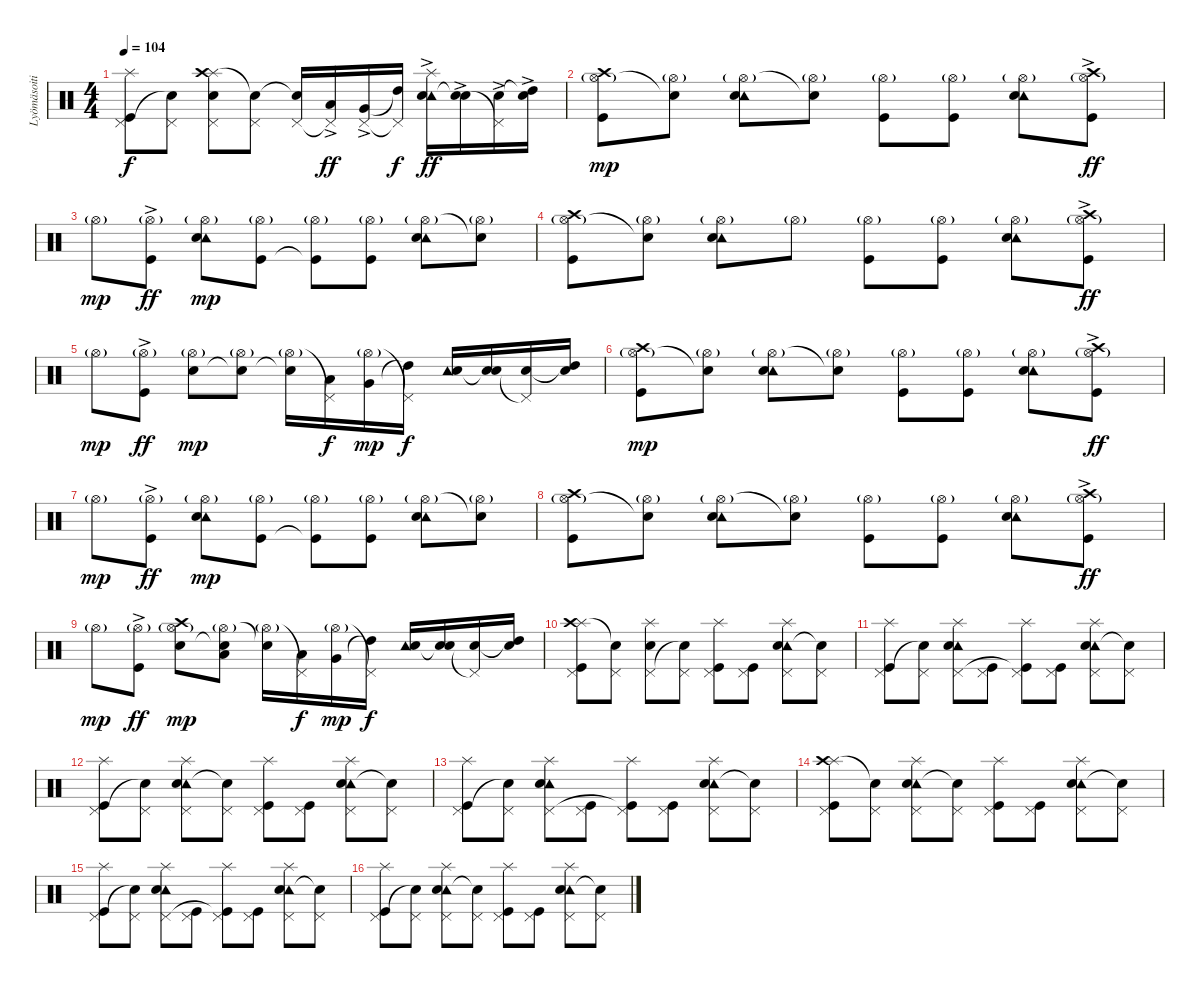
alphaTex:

\track ("Lyömäsoitin" "Lyömäsoiti") {instrument percussion}
\staff {score}
\articulation defaults
\ts (4 4)
\tempo 104
\clef neutral
\ks c
("Splash (hit)" "Pedal Hi-Hat (hit)" "Kick (hit)").8{dy f} ("Pedal Hi-Hat (hit)" "Snare (hit)"{t}).8 ("Splash (hit)" "Crash high (hit)" "Pedal Hi-Hat (hit)" "Snare (hit) 2").8 ("Pedal Hi-Hat (hit)" "Snare (hit)"{t}).8 ("Pedal Hi-Hat (hit)" "Snare (hit)"{t}).16 ("Pedal Hi-Hat (hit)"{t} "Low Tom (hit)"{ac}).16{dy ff} ("Pedal Hi-Hat (hit)"{ac} "Very Low Tom (hit)"{ac}).16 ("Pedal Hi-Hat (hit)"{t} "High Tom (hit)"{t}).16{dy f} ("Splash (hit)"{ac} "Tambourine (hit)"{ac} "Electric Snare (hit)"{ac}).16{dy ff} ("Electric Snare (hit)"{ac} "Snare (hit)"{t}).16 ("Pedal Hi-Hat (hit)"{t} "Electric Snare (hit)"{ac}).16 ("Electric Snare (hit)"{ac} "High Tom (hit)"{t}).16 |
("Crash high (hit)" "Hi-Hat (open)"{g} "Kick (hit)").8{dy mp} ("Hi-Hat (open)"{g} "Snare (hit)"{t}).8 ("Tambourine (hit)" "Hi-Hat (open)"{g} "Snare (hit) 2").8 ("Hi-Hat (open)"{g} "Snare (hit)"{t}).8 ("Hi-Hat (open)"{g} "Kick (hit)").8 ("Hi-Hat (open)"{g} "Kick (hit)").8 ("Tambourine (hit)" "Hi-Hat (open)"{g} "Snare (hit) 2").8 ("Crash high (hit)" "Hi-Hat (open)"{g} "Kick (hit)"{ac}).8{dy ff} |
"Hi-Hat (open)"{g}.8{dy mp} ("Hi-Hat (open)"{g} "Kick (hit)"{ac}).8{dy ff} ("Tambourine (hit)" "Hi-Hat (open)"{g} "Snare (hit) 2").8{dy mp} ("Hi-Hat (open)"{g} "Kick (hit)").8 ("Hi-Hat (open)"{g} "Kick (hit)"{t}).8 ("Hi-Hat (open)"{g} "Kick (hit)").8 ("Tambourine (hit)" "Hi-Hat (open)"{g} "Snare (hit) 2").8 ("Hi-Hat (open)"{g} "Snare (hit) 2"{t}).8 |
("Crash high (hit)" "Hi-Hat (open)"{g} "Kick (hit)").8 ("Hi-Hat (open)"{g} "Snare (hit)"{t}).8 ("Tambourine (hit)" "Hi-Hat (open)"{g} "Snare (hit) 2").8 "Hi-Hat (open)"{g}.8 ("Hi-Hat (open)"{g} "Kick (hit)").8 ("Hi-Hat (open)"{g} "Kick (hit)").8 ("Tambourine (hit)" "Hi-Hat (open)"{g} "Snare (hit) 2").8 ("Crash high (hit)" "Hi-Hat (open)"{g} "Kick (hit)"{ac}).8{dy ff} |
"Hi-Hat (open)"{g}.8{dy mp} ("Hi-Hat (open)"{g} "Kick (hit)"{ac}).8{dy ff} ("Hi-Hat (open)"{g} "Snare (hit) 2").8{dy mp} ("Hi-Hat (open)"{g} "Snare (hit)"{t}).8 ("Hi-Hat (open)"{g} "Snare (hit)"{t}).16 ("Pedal Hi-Hat (hit)"{t} "Low Tom (hit)").16{dy f} ("Hi-Hat (open)"{g} "Very Low Tom (hit)").16{dy mp} ("Pedal Hi-Hat (hit)"{t} "High Tom (hit)"{t}).16{dy f} ("Tambourine (hit)" "Electric Snare (hit)").16 ("Electric Snare (hit)" "Snare (hit)"{t}).16 ("Pedal Hi-Hat (hit)"{t} "Electric Snare (hit)").16 ("Electric Snare (hit)" "High Tom (hit)"{t}).16 |
("Crash high (hit)" "Hi-Hat (open)"{g} "Kick (hit)").8{dy mp} ("Hi-Hat (open)"{g} "Snare (hit)"{t}).8 ("Tambourine (hit)" "Hi-Hat (open)"{g} "Snare (hit) 2").8 ("Hi-Hat (open)"{g} "Snare (hit)"{t}).8 ("Hi-Hat (open)"{g} "Kick (hit)").8 ("Hi-Hat (open)"{g} "Kick (hit)").8 ("Tambourine (hit)" "Hi-Hat (open)"{g} "Snare (hit) 2").8 ("Crash high (hit)" "Hi-Hat (open)"{g} "Kick (hit)"{ac}).8{dy ff} |
"Hi-Hat (open)"{g}.8{dy mp} ("Hi-Hat (open)"{g} "Kick (hit)"{ac}).8{dy ff} ("Tambourine (hit)" "Hi-Hat (open)"{g} "Snare (hit) 2").8{dy mp} ("Hi-Hat (open)"{g} "Kick (hit)").8 ("Hi-Hat (open)"{g} "Kick (hit)"{t}).8 ("Hi-Hat (open)"{g} "Kick (hit)").8 ("Tambourine (hit)" "Hi-Hat (open)"{g} "Snare (hit) 2").8 ("Hi-Hat (open)"{g} "Snare (hit) 2"{t}).8 |
("Crash high (hit)" "Hi-Hat (open)"{g} "Kick (hit)").8 ("Hi-Hat (open)"{g} "Snare (hit)"{t}).8 ("Tambourine (hit)" "Hi-Hat (open)"{g} "Snare (hit) 2").8 ("Hi-Hat (open)"{g} "Snare (hit)"{t}).8 ("Hi-Hat (open)"{g} "Kick (hit)").8 ("Hi-Hat (open)"{g} "Kick (hit)").8 ("Tambourine (hit)" "Hi-Hat (open)"{g} "Snare (hit) 2").8 ("Crash high (hit)" "Hi-Hat (open)"{g} "Kick (hit)"{ac}).8{dy ff} |
"Hi-Hat (open)"{g}.8{dy mp} ("Hi-Hat (open)"{g} "Kick (hit)"{ac}).8{dy ff} ("Crash high (hit)" "Hi-Hat (open)"{g} "Snare (hit) 2").8{dy mp} ("Low Tom (hit)" "Hi-Hat (open)"{g} "Snare (hit)"{t}).8 ("Hi-Hat (open)"{g} "Snare (hit)"{t}).16{volume 15} ("Pedal Hi-Hat (hit)"{t} "Low Tom (hit)").16{dy f} ("Hi-Hat (open)"{g} "Very Low Tom (hit)").16{dy mp} ("Pedal Hi-Hat (hit)"{t} "High Tom (hit)"{t}).16{dy f} ("Tambourine (hit)" "Electric Snare (hit)").16 ("Electric Snare (hit)" "Snare (hit)"{t}).16 ("Pedal Hi-Hat (hit)"{t} "Electric Snare (hit)").16 ("Electric Snare (hit)" "High Tom (hit)"{t}).16 |
("Splash (hit)" "Crash high (hit)" "Pedal Hi-Hat (hit)" "Kick (hit)").8{volume 14} ("Pedal Hi-Hat (hit)" "Snare (hit)"{t}).8 ("Splash (hit)" "Pedal Hi-Hat (hit)" "Snare (hit) 2").8 ("Pedal Hi-Hat (hit)" "Snare (hit)"{t}).8 ("Splash (hit)" "Pedal Hi-Hat (hit)" "Kick (hit)").8 ("Pedal Hi-Hat (hit)" "Kick (hit)").8 ("Splash (hit)" "Tambourine (hit)" "Pedal Hi-Hat (hit)" "Snare (hit) 2").8 ("Pedal Hi-Hat (hit)" "Snare (hit)"{t}).8 |
("Splash (hit)" "Pedal Hi-Hat (hit)" "Kick (hit)").8 ("Pedal Hi-Hat (hit)" "Snare (hit)"{t}).8 ("Splash (hit)" "Tambourine (hit)" "Pedal Hi-Hat (hit)" "Snare (hit) 2").8 ("Pedal Hi-Hat (hit)" "Kick (hit)").8 ("Splash (hit)" "Pedal Hi-Hat (hit)" "Kick (hit)"{t}).8 ("Pedal Hi-Hat (hit)" "Kick (hit)").8 ("Splash (hit)" "Tambourine (hit)" "Pedal Hi-Hat (hit)" "Snare (hit) 2").8 ("Pedal Hi-Hat (hit)" "Snare (hit) 2"{t}).8 |
("Splash (hit)" "Pedal Hi-Hat (hit)" "Kick (hit)").8 ("Pedal Hi-Hat (hit)" "Snare (hit)"{t}).8 ("Splash (hit)" "Tambourine (hit)" "Pedal Hi-Hat (hit)" "Snare (hit) 2").8 ("Pedal Hi-Hat (hit)" "Snare (hit)"{t}).8 ("Splash (hit)" "Pedal Hi-Hat (hit)" "Kick (hit)").8 ("Pedal Hi-Hat (hit)" "Kick (hit)").8 ("Splash (hit)" "Tambourine (hit)" "Pedal Hi-Hat (hit)" "Snare (hit) 2").8 ("Pedal Hi-Hat (hit)" "Snare (hit)"{t}).8 |
("Splash (hit)" "Pedal Hi-Hat (hit)" "Kick (hit)").8 ("Pedal Hi-Hat (hit)" "Snare (hit)"{t}).8 ("Splash (hit)" "Tambourine (hit)" "Pedal Hi-Hat (hit)" "Snare (hit) 2").8 ("Pedal Hi-Hat (hit)" "Kick (hit)").8 ("Splash (hit)" "Pedal Hi-Hat (hit)" "Kick (hit)"{t}).8 ("Pedal Hi-Hat (hit)" "Kick (hit)").8 ("Splash (hit)" "Tambourine (hit)" "Pedal Hi-Hat (hit)" "Snare (hit) 2").8 ("Pedal Hi-Hat (hit)" "Snare (hit) 2"{t}).8 |
("Splash (hit)" "Crash high (hit)" "Pedal Hi-Hat (hit)" "Kick (hit)").8 ("Pedal Hi-Hat (hit)" "Snare (hit)"{t}).8 ("Splash (hit)" "Tambourine (hit)" "Pedal Hi-Hat (hit)" "Snare (hit) 2").8 ("Pedal Hi-Hat (hit)" "Snare (hit)"{t}).8 ("Splash (hit)" "Pedal Hi-Hat (hit)" "Kick (hit)").8 ("Pedal Hi-Hat (hit)" "Kick (hit)").8 ("Splash (hit)" "Tambourine (hit)" "Pedal Hi-Hat (hit)" "Snare (hit) 2").8 ("Pedal Hi-Hat (hit)" "Snare (hit)"{t}).8 |
("Splash (hit)" "Pedal Hi-Hat (hit)" "Kick (hit)").8 ("Pedal Hi-Hat (hit)" "Snare (hit)"{t}).8 ("Splash (hit)" "Tambourine (hit)" "Pedal Hi-Hat (hit)" "Snare (hit) 2").8 ("Pedal Hi-Hat (hit)" "Kick (hit)").8 ("Splash (hit)" "Pedal Hi-Hat (hit)" "Kick (hit)"{t}).8 ("Pedal Hi-Hat (hit)" "Kick (hit)").8 ("Splash (hit)" "Tambourine (hit)" "Pedal Hi-Hat (hit)" "Snare (hit) 2").8 ("Pedal Hi-Hat (hit)" "Snare (hit) 2"{t}).8 |
("Splash (hit)" "Pedal Hi-Hat (hit)" "Kick (hit)").8 ("Pedal Hi-Hat (hit)" "Snare (hit)"{t}).8 ("Splash (hit)" "Tambourine (hit)" "Pedal Hi-Hat (hit)" "Snare (hit) 2").8 ("Pedal Hi-Hat (hit)" "Snare (hit)"{t}).8 ("Splash (hit)" "Pedal Hi-Hat (hit)" "Kick (hit)").8 ("Pedal Hi-Hat (hit)" "Kick (hit)").8 ("Splash (hit)" "Tambourine (hit)" "Pedal Hi-Hat (hit)" "Snare (hit) 2").8 ("Pedal Hi-Hat (hit)" "Snare (hit)"{t}).8
